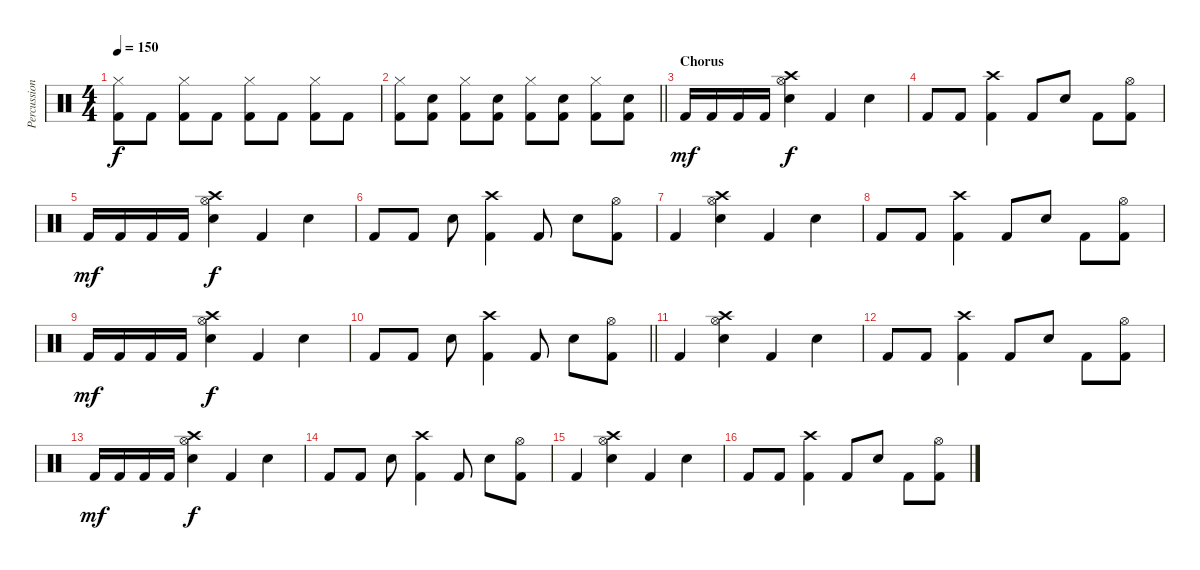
\track ("Percussion" "Percussion") {instrument percussion}
\staff {score}
\articulation defaults
\ts (4 4)
\tempo 150
\clef neutral
\ks c
("Hi-Hat (closed)" "Kick (hit) 2").8{dy f} "Kick (hit) 2".8 ("Hi-Hat (closed)" "Kick (hit) 2").8 "Kick (hit) 2".8 ("Hi-Hat (closed)" "Kick (hit) 2").8 "Kick (hit) 2".8 ("Hi-Hat (closed)" "Kick (hit) 2").8 "Kick (hit) 2".8 |
\barLineRight lightlight
("Hi-Hat (closed)" "Kick (hit) 2").8 ("Electric Snare (hit)" "Kick (hit) 2").8 ("Hi-Hat (closed)" "Kick (hit) 2").8 ("Electric Snare (hit)" "Kick (hit) 2").8 ("Hi-Hat (closed)" "Kick (hit) 2").8 ("Electric Snare (hit)" "Kick (hit) 2").8 ("Hi-Hat (closed)" "Kick (hit) 2").8 ("Electric Snare (hit)" "Kick (hit) 2").8 |
\section ("" "Chorus")
"Kick (hit) 2".16{dy mf} "Kick (hit) 2".16 "Kick (hit) 2".16 "Kick (hit) 2".16 ("Crash high (hit)" "Electric Snare (hit)" "Hi-Hat (open)").4{dy f} "Kick (hit) 2".4 "Electric Snare (hit)".4 |
"Kick (hit) 2".8 "Kick (hit) 2".8 ("Crash high (hit)" "Kick (hit) 2").4 "Kick (hit) 2".8 "Electric Snare (hit)".8 "Kick (hit) 2".8 ("Hi-Hat (open)" "Kick (hit) 2").8 |
"Kick (hit) 2".16{dy mf} "Kick (hit) 2".16 "Kick (hit) 2".16 "Kick (hit) 2".16 ("Crash high (hit)" "Electric Snare (hit)" "Hi-Hat (open)").4{dy f} "Kick (hit) 2".4 "Electric Snare (hit)".4 |
"Kick (hit) 2".8 "Kick (hit) 2".8 "Electric Snare (hit)".8 ("Crash high (hit)" "Kick (hit) 2").4 "Kick (hit) 2".8 "Electric Snare (hit)".8 ("Hi-Hat (open)" "Kick (hit) 2").8 |
"Kick (hit) 2".4 ("Crash high (hit)" "Electric Snare (hit)" "Hi-Hat (open)").4 "Kick (hit) 2".4 "Electric Snare (hit)".4 |
"Kick (hit) 2".8 "Kick (hit) 2".8 ("Crash high (hit)" "Kick (hit) 2").4 "Kick (hit) 2".8 "Electric Snare (hit)".8 "Kick (hit) 2".8 ("Hi-Hat (open)" "Kick (hit) 2").8 |
"Kick (hit) 2".16{dy mf} "Kick (hit) 2".16 "Kick (hit) 2".16 "Kick (hit) 2".16 ("Crash high (hit)" "Electric Snare (hit)" "Hi-Hat (open)").4{dy f} "Kick (hit) 2".4 "Electric Snare (hit)".4 |
\barLineRight lightlight "Kick (hit) 2".8 "Kick (hit) 2".8 "Electric Snare (hit)".8
("Crash high (hit)" "Kick (hit) 2").4 "Kick (hit) 2".8 "Electric Snare (hit)".8 ("Hi-Hat (open)" "Kick (hit) 2").8 |
"Kick (hit) 2".4 ("Crash high (hit)" "Electric Snare (hit)" "Hi-Hat (open)").4 "Kick (hit) 2".4 "Electric Snare (hit)".4 |
"Kick (hit) 2".8 "Kick (hit) 2".8 ("Crash high (hit)" "Kick (hit) 2").4 "Kick (hit) 2".8 "Electric Snare (hit)".8 "Kick (hit) 2".8 ("Hi-Hat (open)" "Kick (hit) 2").8 |
"Kick (hit) 2".16{dy mf} "Kick (hit) 2".16 "Kick (hit) 2".16 "Kick (hit) 2".16 ("Crash high (hit)" "Electric Snare (hit)" "Hi-Hat (open)").4{dy f} "Kick (hit) 2".4 "Electric Snare (hit)".4 |
"Kick (hit) 2".8 "Kick (hit) 2".8 "Electric Snare (hit)".8 ("Crash high (hit)" "Kick (hit) 2").4 "Kick (hit) 2".8 "Electric Snare (hit)".8 ("Hi-Hat (open)" "Kick (hit) 2").8 |
"Kick (hit) 2".4 ("Crash high (hit)" "Electric Snare (hit)" "Hi-Hat (open)").4 "Kick (hit) 2".4 "Electric Snare (hit)".4 |
"Kick (hit) 2".8 "Kick (hit) 2".8 ("Crash high (hit)" "Kick (hit) 2").4 "Kick (hit) 2".8 "Electric Snare (hit)".8 "Kick (hit) 2".8 ("Hi-Hat (open)" "Kick (hit) 2").8
